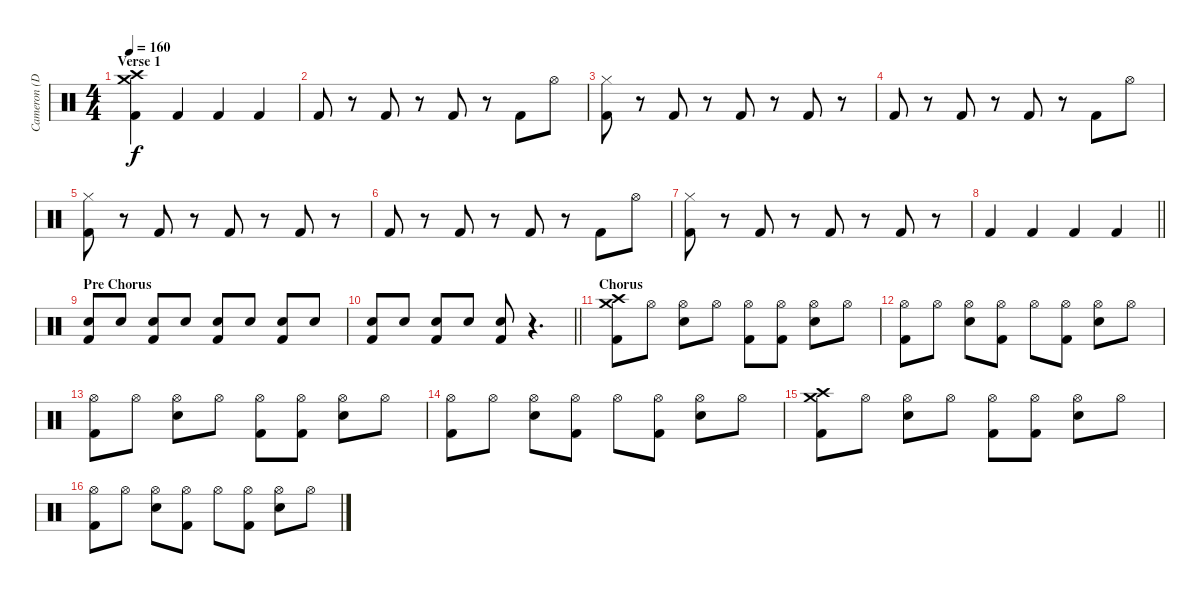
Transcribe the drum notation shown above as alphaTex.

\track ("Cameron (Drums)" "Cameron (D") {instrument percussion}
\staff {score}
\articulation defaults
\ts (4 4)
\section ("" "Verse 1")
\tempo 160
\clef neutral
\ks c
("Crash medium (hit)" "Crash high (hit)" "Kick (hit) 2").4{dy f} "Kick (hit) 2".4 "Kick (hit) 2".4 "Kick (hit) 2".4 |
"Kick (hit) 2".8 r.8 "Kick (hit) 2".8 r.8 "Kick (hit) 2".8 r.8 "Kick (hit) 2".8 "Hi-Hat (open)".8 |
("Hi-Hat (closed)" "Kick (hit) 2").8 r.8 "Kick (hit) 2".8 r.8 "Kick (hit) 2".8 r.8 "Kick (hit) 2".8 r.8 |
"Kick (hit) 2".8 r.8 "Kick (hit) 2".8 r.8 "Kick (hit) 2".8 r.8 "Kick (hit) 2".8 "Hi-Hat (open)".8 |
("Hi-Hat (closed)" "Kick (hit) 2").8 r.8 "Kick (hit) 2".8 r.8 "Kick (hit) 2".8 r.8 "Kick (hit) 2".8 r.8 |
"Kick (hit) 2".8 r.8 "Kick (hit) 2".8 r.8 "Kick (hit) 2".8 r.8 "Kick (hit) 2".8 "Hi-Hat (open)".8 |
("Hi-Hat (closed)" "Kick (hit) 2").8 r.8 "Kick (hit) 2".8 r.8 "Kick (hit) 2".8 r.8 "Kick (hit) 2".8 r.8 |
\barLineRight lightlight "Kick (hit) 2".4 "Kick (hit) 2".4 "Kick (hit) 2".4 "Kick (hit) 2".4
|
\section ("" "Pre Chorus")
("Snare (hit) 2" "Kick (hit) 2").8 "Snare (hit) 2".8 ("Snare (hit) 2" "Kick (hit) 2").8 "Snare (hit) 2".8 ("Snare (hit) 2" "Kick (hit) 2").8 "Snare (hit) 2".8 ("Snare (hit) 2" "Kick (hit) 2").8 "Snare (hit) 2".8 |
\barLineRight lightlight
("Snare (hit) 2" "Kick (hit) 2").8 "Snare (hit) 2".8 ("Snare (hit) 2" "Kick (hit) 2").8 "Snare (hit) 2".8 ("Snare (hit) 2" "Kick (hit) 2").8 r.4{d} |
\section ("" "Chorus")
("Crash medium (hit)" "Crash high (hit)" "Kick (hit) 2").8 "Hi-Hat (open)".8 ("Hi-Hat (open)" "Snare (hit) 2").8 "Hi-Hat (open)".8 ("Hi-Hat (open)" "Kick (hit) 2").8 ("Hi-Hat (open)" "Kick (hit) 2").8 ("Hi-Hat (open)" "Snare (hit) 2").8 "Hi-Hat (open)".8 |
("Hi-Hat (open)" "Kick (hit) 2").8 "Hi-Hat (open)".8 ("Hi-Hat (open)" "Snare (hit) 2").8 ("Hi-Hat (open)" "Kick (hit) 2").8 "Hi-Hat (open)".8 ("Hi-Hat (open)" "Kick (hit) 2").8 ("Hi-Hat (open)" "Snare (hit) 2").8 "Hi-Hat (open)".8 |
("Hi-Hat (open)" "Kick (hit) 2").8 "Hi-Hat (open)".8 ("Hi-Hat (open)" "Snare (hit) 2").8 "Hi-Hat (open)".8 ("Hi-Hat (open)" "Kick (hit) 2").8 ("Hi-Hat (open)" "Kick (hit) 2").8 ("Hi-Hat (open)" "Snare (hit) 2").8 "Hi-Hat (open)".8 |
("Hi-Hat (open)" "Kick (hit) 2").8 "Hi-Hat (open)".8 ("Hi-Hat (open)" "Snare (hit) 2").8 ("Hi-Hat (open)" "Kick (hit) 2").8 "Hi-Hat (open)".8 ("Hi-Hat (open)" "Kick (hit) 2").8 ("Hi-Hat (open)" "Snare (hit) 2").8 "Hi-Hat (open)".8 |
("Crash medium (hit)" "Crash high (hit)" "Kick (hit) 2").8 "Hi-Hat (open)".8 ("Hi-Hat (open)" "Snare (hit) 2").8 "Hi-Hat (open)".8 ("Hi-Hat (open)" "Kick (hit) 2").8 ("Hi-Hat (open)" "Kick (hit) 2").8 ("Hi-Hat (open)" "Snare (hit) 2").8 "Hi-Hat (open)".8 |
("Hi-Hat (open)" "Kick (hit) 2").8 "Hi-Hat (open)".8 ("Hi-Hat (open)" "Snare (hit) 2").8 ("Hi-Hat (open)" "Kick (hit) 2").8 "Hi-Hat (open)".8 ("Hi-Hat (open)" "Kick (hit) 2").8 ("Hi-Hat (open)" "Snare (hit) 2").8 "Hi-Hat (open)".8
